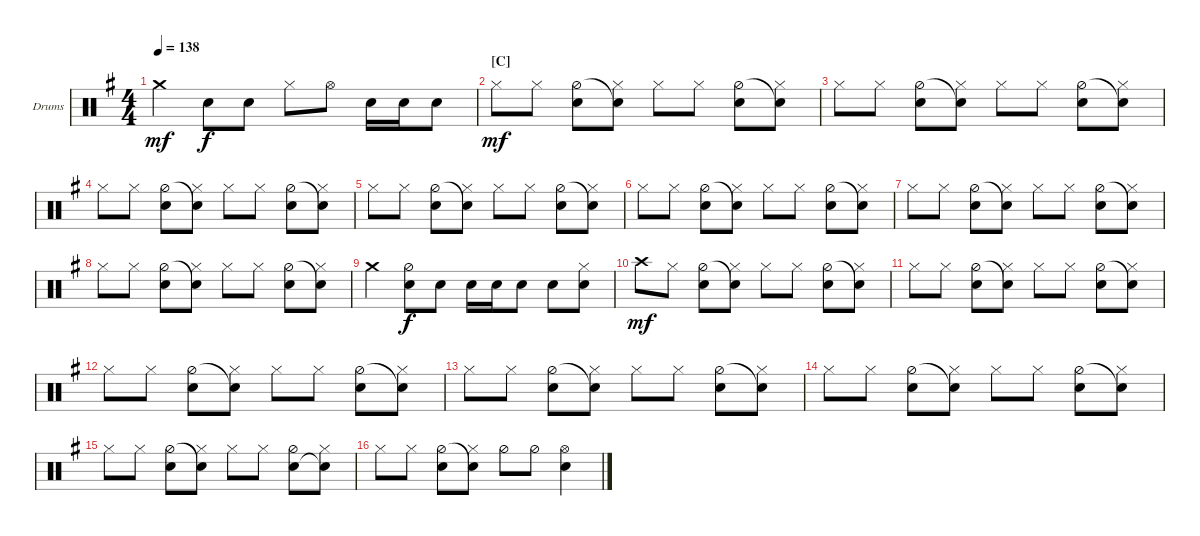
\defaultSystemsLayout 4
\bracketExtendMode groupsimilarinstruments
\firstSystemTrackNameOrientation horizontal
\otherSystemsTrackNameOrientation horizontal
\track ("Drumkit" "Drums") {instrument percussion}
\staff {score}
\articulation defaults
\ts (4 4)
\tempo 138
\clef neutral
\ks g "Crash medium (hit)".4{dy mf} "Snare (hit) 2".8{dy f} "Snare (hit) 2".8 "Hi-Hat (closed)".8 "Hi-Hat (open)".8 "Snare (hit) 2".16 "Snare (hit) 2".16 "Snare (hit) 2".8
|
\section ("C" "")
"Hi-Hat (closed)".8{dy mf} "Hi-Hat (closed)".8 ("Hi-Hat (half)" "Snare (hit) 2").8 ("Snare (hit) 2"{t} "Hi-Hat (closed)").8 "Hi-Hat (closed)".8 "Hi-Hat (closed)".8 ("Hi-Hat (half)" "Snare (hit) 2").8 ("Snare (hit) 2"{t} "Hi-Hat (closed)").8 |
"Hi-Hat (closed)".8 "Hi-Hat (closed)".8 ("Hi-Hat (half)" "Snare (hit) 2").8 ("Snare (hit) 2"{t} "Hi-Hat (closed)").8 "Hi-Hat (closed)".8 "Hi-Hat (closed)".8 ("Hi-Hat (half)" "Snare (hit) 2").8 ("Snare (hit) 2"{t} "Hi-Hat (closed)").8 |
"Hi-Hat (closed)".8 "Hi-Hat (closed)".8 ("Hi-Hat (half)" "Snare (hit) 2").8 ("Snare (hit) 2"{t} "Hi-Hat (closed)").8 "Hi-Hat (closed)".8 "Hi-Hat (closed)".8 ("Hi-Hat (half)" "Snare (hit) 2").8 ("Snare (hit) 2"{t} "Hi-Hat (closed)").8 |
"Hi-Hat (closed)".8 "Hi-Hat (closed)".8 ("Hi-Hat (half)" "Snare (hit) 2").8 ("Snare (hit) 2"{t} "Hi-Hat (closed)").8 "Hi-Hat (closed)".8 "Hi-Hat (closed)".8 ("Hi-Hat (half)" "Snare (hit) 2").8 ("Snare (hit) 2"{t} "Hi-Hat (closed)").8 |
"Hi-Hat (closed)".8 "Hi-Hat (closed)".8 ("Hi-Hat (half)" "Snare (hit) 2").8 ("Snare (hit) 2"{t} "Hi-Hat (closed)").8 "Hi-Hat (closed)".8 "Hi-Hat (closed)".8 ("Hi-Hat (half)" "Snare (hit) 2").8 ("Snare (hit) 2"{t} "Hi-Hat (closed)").8 |
"Hi-Hat (closed)".8 "Hi-Hat (closed)".8 ("Hi-Hat (half)" "Snare (hit) 2").8 ("Snare (hit) 2"{t} "Hi-Hat (closed)").8 "Hi-Hat (closed)".8 "Hi-Hat (closed)".8 ("Hi-Hat (half)" "Snare (hit) 2").8 ("Snare (hit) 2"{t} "Hi-Hat (closed)").8 |
"Hi-Hat (closed)".8 "Hi-Hat (closed)".8 ("Hi-Hat (half)" "Snare (hit) 2").8 ("Snare (hit) 2"{t} "Hi-Hat (closed)").8 "Hi-Hat (closed)".8 "Hi-Hat (closed)".8 ("Hi-Hat (half)" "Snare (hit) 2").8 ("Snare (hit) 2"{t} "Hi-Hat (closed)").8 |
"Crash medium (hit)".4 ("Snare (hit) 2" "Hi-Hat (half)").8{dy f} "Snare (hit) 2".8 "Snare (hit) 2".16 "Snare (hit) 2".16 "Snare (hit) 2".8 "Snare (hit) 2".8 ("Snare (hit) 2" "Hi-Hat (closed)").8 |
"Crash high (hit)".8{dy mf} "Hi-Hat (closed)".8 ("Hi-Hat (half)" "Snare (hit) 2").8 ("Snare (hit) 2"{t} "Hi-Hat (closed)").8 "Hi-Hat (closed)".8 "Hi-Hat (closed)".8 ("Hi-Hat (half)" "Snare (hit) 2").8 ("Snare (hit) 2"{t} "Hi-Hat (closed)").8 |
"Hi-Hat (closed)".8 "Hi-Hat (closed)".8 ("Hi-Hat (half)" "Snare (hit) 2").8 ("Snare (hit) 2"{t} "Hi-Hat (closed)").8 "Hi-Hat (closed)".8 "Hi-Hat (closed)".8 ("Hi-Hat (half)" "Snare (hit) 2").8 ("Snare (hit) 2"{t} "Hi-Hat (closed)").8 |
"Hi-Hat (closed)".8 "Hi-Hat (closed)".8 ("Hi-Hat (half)" "Snare (hit) 2").8 ("Snare (hit) 2"{t} "Hi-Hat (closed)").8 "Hi-Hat (closed)".8 "Hi-Hat (closed)".8 ("Hi-Hat (half)" "Snare (hit) 2").8 ("Snare (hit) 2"{t} "Hi-Hat (closed)").8 |
"Hi-Hat (closed)".8 "Hi-Hat (closed)".8 ("Hi-Hat (half)" "Snare (hit) 2").8 ("Snare (hit) 2"{t} "Hi-Hat (closed)").8 "Hi-Hat (closed)".8 "Hi-Hat (closed)".8 ("Hi-Hat (half)" "Snare (hit) 2").8 ("Snare (hit) 2"{t} "Hi-Hat (closed)").8 |
"Hi-Hat (closed)".8 "Hi-Hat (closed)".8 ("Hi-Hat (half)" "Snare (hit) 2").8 ("Snare (hit) 2"{t} "Hi-Hat (closed)").8 "Hi-Hat (closed)".8 "Hi-Hat (closed)".8 ("Hi-Hat (half)" "Snare (hit) 2").8 ("Snare (hit) 2"{t} "Hi-Hat (closed)").8 |
"Hi-Hat (closed)".8 "Hi-Hat (closed)".8 ("Hi-Hat (half)" "Snare (hit) 2").8 ("Snare (hit) 2"{t} "Hi-Hat (closed)").8 "Hi-Hat (closed)".8 "Hi-Hat (closed)".8 ("Hi-Hat (half)" "Snare (hit) 2").8 ("Hi-Hat (closed)" "Snare (hit) 2"{t}).8 |
"Hi-Hat (closed)".8 "Hi-Hat (closed)".8 ("Hi-Hat (half)" "Snare (hit) 2").8 ("Snare (hit) 2"{t} "Hi-Hat (closed)").8 "Hi-Hat (half)".8 "Hi-Hat (half)".8 ("Hi-Hat (open)" "Snare (hit) 2").4
